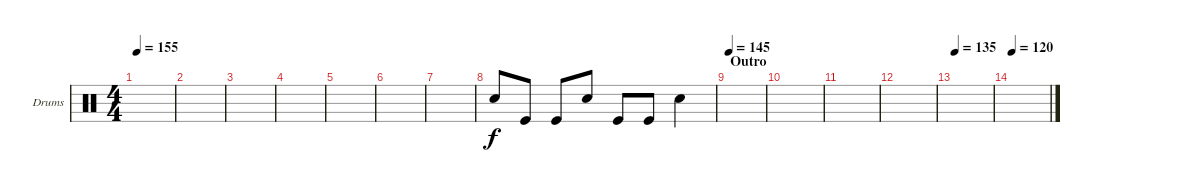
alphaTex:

\defaultSystemsLayout 4
\bracketExtendMode groupsimilarinstruments
\firstSystemTrackNameOrientation horizontal
\otherSystemsTrackNameOrientation horizontal
\track ("Drumkit" "Drums") {instrument percussion}
\staff {score}
\articulation defaults
\ts (4 4)
\tempo 155
\clef neutral
\scale
0.333333
\ks c
|
\scale
0.333333 |
\scale
0.333333 |
\scale
0.333333 |
\scale
0.333333 |
\scale
0.333333 |
\scale
0.333333 |
\scale
0.333333 "Snare (hit) 2".8 "Kick (hit)".8 "Kick (hit)".8 "Snare (hit) 2".8 "Kick (hit)".8 "Kick (hit)".8 "Snare (hit) 2".4 |
\section ("" "Outro")
\tempo 145
\scale
0.333333 |
\scale
0.333333 |
\scale
0.333333 |
\scale
0.333333 |
\tempo 135
\scale
0.333333 |
\tempo 120
\scale
0.333333
